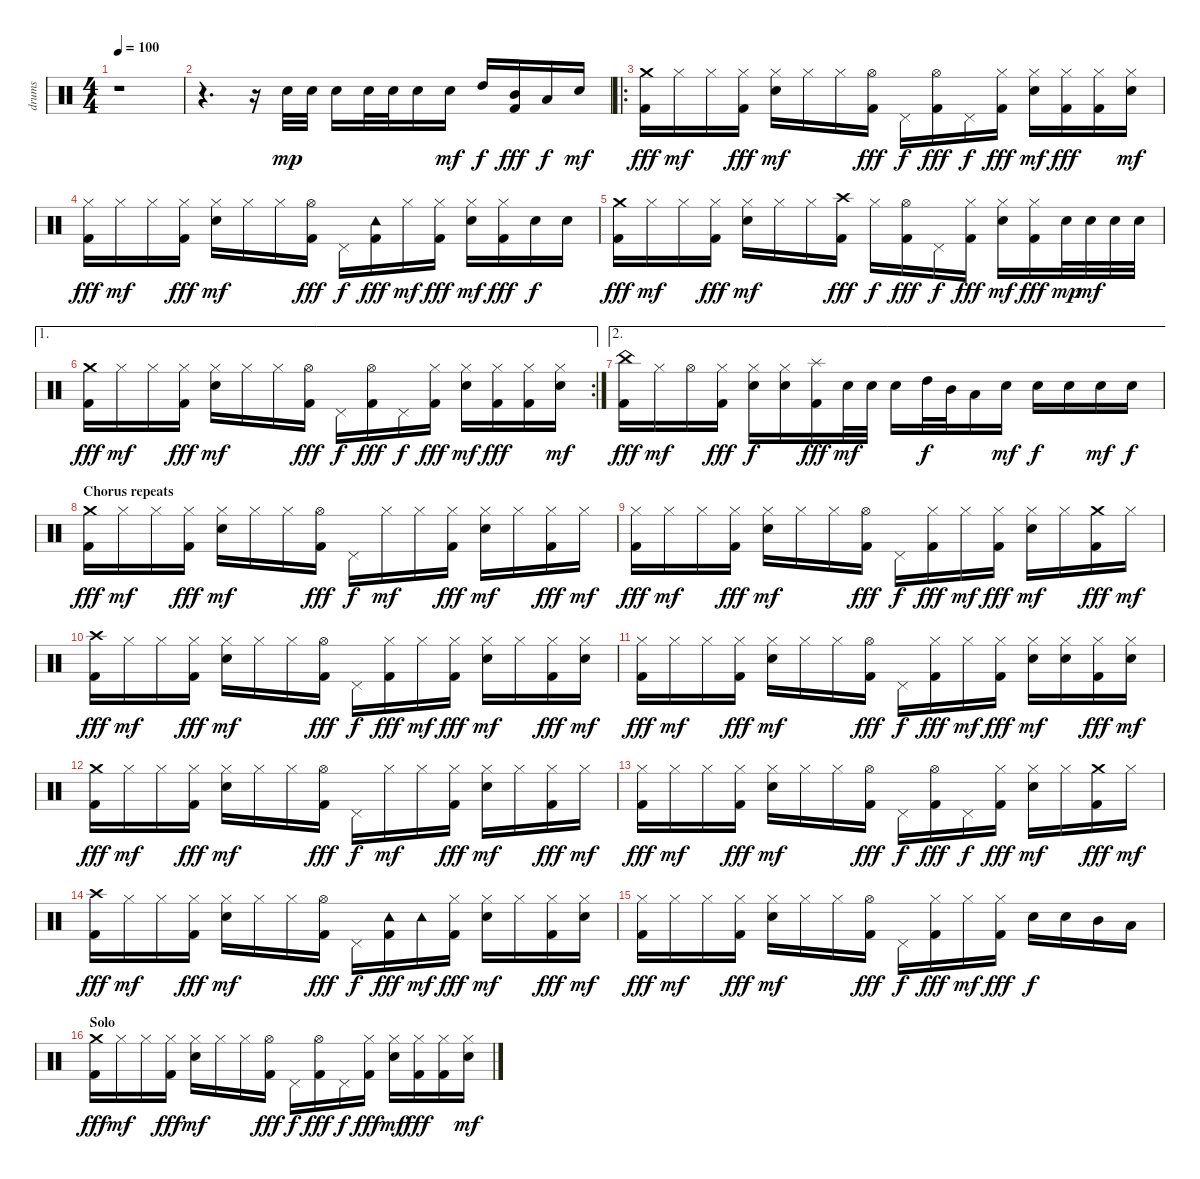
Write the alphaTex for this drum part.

\track ("drums" "drums") {instrument percussion}
\staff {score}
\articulation defaults
\ts (4 4)
\tempo 100
\clef neutral
\ks c
r.1{dy fff} |
r.4{d} r.16 "Electric Snare (hit)".32{dy mp} "Electric Snare (hit)".32 "Electric Snare (hit)".16 "Electric Snare (hit)".32 "Electric Snare (hit)".32 "Electric Snare (hit)".16 "Electric Snare (hit)".16{dy mf} "High Tom (hit)".16{dy f} ("Mid Tom (hit)" "Kick (hit) 2").16{dy fff} "Low Tom (hit)".16{dy f} "Electric Snare (hit)".16{dy mf} |
\ro
("Crash medium (hit)" "Kick (hit) 2").16{dy fff} "Hi-Hat (closed)".16{dy mf} "Hi-Hat (closed)".16 ("Hi-Hat (closed)" "Kick (hit) 2").16{dy fff} ("Hi-Hat (closed)" "Electric Snare (hit)").16{dy mf} "Hi-Hat (closed)".16 "Hi-Hat (closed)".16 ("Hi-Hat (open)" "Kick (hit) 2").16{dy fff} "Pedal Hi-Hat (hit)".16{dy f} ("Hi-Hat (open)" "Kick (hit) 2").16{dy fff} "Pedal Hi-Hat (hit)".16{dy f} ("Hi-Hat (closed)" "Kick (hit) 2").16{dy fff} ("Hi-Hat (closed)" "Electric Snare (hit)").16{dy mf} ("Hi-Hat (closed)" "Kick (hit) 2").16{dy fff} ("Hi-Hat (closed)" "Kick (hit) 2").16 ("Hi-Hat (closed)" "Electric Snare (hit)").16{dy mf} |
("Hi-Hat (closed)" "Kick (hit) 2").16{dy fff} "Hi-Hat (closed)".16{dy mf} "Hi-Hat (closed)".16 ("Hi-Hat (closed)" "Kick (hit) 2").16{dy fff} ("Hi-Hat (closed)" "Electric Snare (hit)").16{dy mf} "Hi-Hat (closed)".16 "Hi-Hat (closed)".16 ("Hi-Hat (open)" "Kick (hit) 2").16{dy fff} "Pedal Hi-Hat (hit)".16{dy f} ("Tambourine (hit)" "Kick (hit) 2").16{dy fff} "Hi-Hat (closed)".16{dy mf} ("Hi-Hat (closed)" "Kick (hit) 2").16{dy fff} ("Hi-Hat (closed)" "Electric Snare (hit)").16{dy mf} ("Hi-Hat (closed)" "Kick (hit) 2").16{dy fff} "Electric Snare (hit)".16{dy f} "Electric Snare (hit)".16 |
("Crash medium (hit)" "Kick (hit) 2").16{dy fff} "Hi-Hat (closed)".16{dy mf} "Hi-Hat (closed)".16 ("Hi-Hat (closed)" "Kick (hit) 2").16{dy fff} ("Hi-Hat (closed)" "Electric Snare (hit)").16{dy mf} "Hi-Hat (closed)".16 "Hi-Hat (closed)".16 ("Crash high (hit)" "Kick (hit) 2").16{dy fff} "Hi-Hat (closed)".16{dy f} ("Hi-Hat (open)" "Kick (hit) 2").16{dy fff} "Pedal Hi-Hat (hit)".16{dy f} ("Hi-Hat (closed)" "Kick (hit) 2").16{dy fff} ("Hi-Hat (closed)" "Electric Snare (hit)").16{dy mf} ("Hi-Hat (closed)" "Kick (hit) 2").16{dy fff} "Electric Snare (hit)".32{dy mp} "Electric Snare (hit)".32{dy mf} "Electric Snare (hit)".32 "Electric Snare (hit)".32 |
\ae 1
\rc 2
("Crash medium (hit)" "Kick (hit) 2").16{dy fff} "Hi-Hat (closed)".16{dy mf} "Hi-Hat (closed)".16 ("Hi-Hat (closed)" "Kick (hit) 2").16{dy fff} ("Hi-Hat (closed)" "Electric Snare (hit)").16{dy mf} "Hi-Hat (closed)".16 "Hi-Hat (closed)".16 ("Hi-Hat (open)" "Kick (hit) 2").16{dy fff} "Pedal Hi-Hat (hit)".16{dy f} ("Hi-Hat (open)" "Kick (hit) 2").16{dy fff} "Pedal Hi-Hat (hit)".16{dy f} ("Hi-Hat (closed)" "Kick (hit) 2").16{dy fff} ("Hi-Hat (closed)" "Electric Snare (hit)").16{dy mf} ("Hi-Hat (closed)" "Kick (hit) 2").16{dy fff} ("Hi-Hat (closed)" "Kick (hit) 2").16 ("Hi-Hat (closed)" "Electric Snare (hit)").16{dy mf} |
\ae 2
("China (hit)" "Kick (hit) 2").16{dy fff} "Hi-Hat (closed)".16{dy mf} "Hi-Hat (open)".16 ("Hi-Hat (closed)" "Kick (hit) 2").16{dy fff} ("Hi-Hat (closed)" "Electric Snare (hit)").16{dy f} ("Hi-Hat (closed)" "Electric Snare (hit)").16 ("Splash (hit)" "Kick (hit) 2").16{dy fff} "Electric Snare (hit)".32{dy mf} "Electric Snare (hit)".32 "Electric Snare (hit)".16 "High Tom (hit)".32{dy f} "Mid Tom (hit)".32 "Low Tom (hit)".16 "Electric Snare (hit)".16{dy mf} "Electric Snare (hit)".16{dy f} "Electric Snare (hit)".16 "Electric Snare (hit)".16{dy mf} "Electric Snare (hit)".16{dy f} |
\section ("" "Chorus repeats")
("Crash medium (hit)" "Kick (hit) 2").16{dy fff} "Hi-Hat (closed)".16{dy mf} "Hi-Hat (closed)".16 ("Hi-Hat (closed)" "Kick (hit) 2").16{dy fff} ("Hi-Hat (closed)" "Electric Snare (hit)").16{dy mf} "Hi-Hat (closed)".16 "Hi-Hat (closed)".16 ("Hi-Hat (open)" "Kick (hit) 2").16{dy fff} "Pedal Hi-Hat (hit)".16{dy f} "Hi-Hat (closed)".16{dy mf} "Hi-Hat (closed)".16 ("Hi-Hat (closed)" "Kick (hit) 2").16{dy fff} ("Hi-Hat (closed)" "Electric Snare (hit)").16{dy mf} "Hi-Hat (closed)".16 ("Hi-Hat (closed)" "Kick (hit) 2").16{dy fff} "Hi-Hat (closed)".16{dy mf} |
("Hi-Hat (closed)" "Kick (hit) 2").16{dy fff} "Hi-Hat (closed)".16{dy mf} "Hi-Hat (closed)".16 ("Hi-Hat (closed)" "Kick (hit) 2").16{dy fff} ("Hi-Hat (closed)" "Electric Snare (hit)").16{dy mf} "Hi-Hat (closed)".16 "Hi-Hat (closed)".16 ("Hi-Hat (open)" "Kick (hit) 2").16{dy fff} "Pedal Hi-Hat (hit)".16{dy f} ("Hi-Hat (closed)" "Kick (hit) 2").16{dy fff} "Hi-Hat (closed)".16{dy mf} ("Hi-Hat (closed)" "Kick (hit) 2").16{dy fff} ("Hi-Hat (closed)" "Electric Snare (hit)").16{dy mf} "Hi-Hat (closed)".16 ("Crash medium (hit)" "Kick (hit) 2").16{dy fff} "Hi-Hat (closed)".16{dy mf} |
("Crash high (hit)" "Kick (hit) 2").16{dy fff} "Hi-Hat (closed)".16{dy mf} "Hi-Hat (closed)".16 ("Hi-Hat (closed)" "Kick (hit) 2").16{dy fff} ("Hi-Hat (closed)" "Electric Snare (hit)").16{dy mf} "Hi-Hat (closed)".16 "Hi-Hat (closed)".16 ("Hi-Hat (open)" "Kick (hit) 2").16{dy fff} "Pedal Hi-Hat (hit)".16{dy f} ("Hi-Hat (closed)" "Kick (hit) 2").16{dy fff} "Hi-Hat (closed)".16{dy mf} ("Hi-Hat (closed)" "Kick (hit) 2").16{dy fff} ("Hi-Hat (closed)" "Electric Snare (hit)").16{dy mf} "Hi-Hat (closed)".16 ("Hi-Hat (closed)" "Kick (hit) 2").16{dy fff} ("Hi-Hat (closed)" "Electric Snare (hit)").16{dy mf} |
("Hi-Hat (closed)" "Kick (hit) 2").16{dy fff} "Hi-Hat (closed)".16{dy mf} "Hi-Hat (closed)".16 ("Hi-Hat (closed)" "Kick (hit) 2").16{dy fff} ("Hi-Hat (closed)" "Electric Snare (hit)").16{dy mf} "Hi-Hat (closed)".16 "Hi-Hat (closed)".16 ("Hi-Hat (open)" "Kick (hit) 2").16{dy fff} "Pedal Hi-Hat (hit)".16{dy f} ("Hi-Hat (closed)" "Kick (hit) 2").16{dy fff} "Hi-Hat (closed)".16{dy mf} ("Hi-Hat (closed)" "Kick (hit) 2").16{dy fff} ("Hi-Hat (closed)" "Electric Snare (hit)").16{dy mf} ("Hi-Hat (closed)" "Electric Snare (hit)").16 ("Hi-Hat (closed)" "Kick (hit) 2").16{dy fff} ("Hi-Hat (closed)" "Electric Snare (hit)").16{dy mf} |
("Crash medium (hit)" "Kick (hit) 2").16{dy fff} "Hi-Hat (closed)".16{dy mf} "Hi-Hat (closed)".16 ("Hi-Hat (closed)" "Kick (hit) 2").16{dy fff} ("Hi-Hat (closed)" "Electric Snare (hit)").16{dy mf} "Hi-Hat (closed)".16 "Hi-Hat (closed)".16 ("Hi-Hat (open)" "Kick (hit) 2").16{dy fff} "Pedal Hi-Hat (hit)".16{dy f} "Hi-Hat (closed)".16{dy mf} "Hi-Hat (closed)".16 ("Hi-Hat (closed)" "Kick (hit) 2").16{dy fff} ("Hi-Hat (closed)" "Electric Snare (hit)").16{dy mf} "Hi-Hat (closed)".16 ("Hi-Hat (closed)" "Kick (hit) 2").16{dy fff} "Hi-Hat (closed)".16{dy mf} |
("Hi-Hat (closed)" "Kick (hit) 2").16{dy fff} "Hi-Hat (closed)".16{dy mf} "Hi-Hat (closed)".16 ("Hi-Hat (closed)" "Kick (hit) 2").16{dy fff} ("Hi-Hat (closed)" "Electric Snare (hit)").16{dy mf} "Hi-Hat (closed)".16 "Hi-Hat (closed)".16 ("Hi-Hat (open)" "Kick (hit) 2").16{dy fff} "Pedal Hi-Hat (hit)".16{dy f} ("Hi-Hat (open)" "Kick (hit) 2").16{dy fff} "Pedal Hi-Hat (hit)".16{dy f} ("Hi-Hat (closed)" "Kick (hit) 2").16{dy fff} ("Hi-Hat (closed)" "Electric Snare (hit)").16{dy mf} "Hi-Hat (closed)".16 ("Crash medium (hit)" "Kick (hit) 2").16{dy fff} "Hi-Hat (closed)".16{dy mf} |
("Crash high (hit)" "Kick (hit) 2").16{dy fff} "Hi-Hat (closed)".16{dy mf} "Hi-Hat (closed)".16 ("Hi-Hat (closed)" "Kick (hit) 2").16{dy fff} ("Hi-Hat (closed)" "Electric Snare (hit)").16{dy mf} "Hi-Hat (closed)".16 "Hi-Hat (closed)".16 ("Hi-Hat (open)" "Kick (hit) 2").16{dy fff} "Pedal Hi-Hat (hit)".16{dy f} ("Tambourine (hit)" "Kick (hit) 2").16{dy fff} "Tambourine (hit)".16{dy mf} ("Hi-Hat (closed)" "Kick (hit) 2").16{dy fff} ("Hi-Hat (closed)" "Electric Snare (hit)").16{dy mf} "Hi-Hat (closed)".16 ("Hi-Hat (closed)" "Kick (hit) 2").16{dy fff} ("Hi-Hat (closed)" "Electric Snare (hit)").16{dy mf} |
("Hi-Hat (closed)" "Kick (hit) 2").16{dy fff} "Hi-Hat (closed)".16{dy mf} "Hi-Hat (closed)".16 ("Hi-Hat (closed)" "Kick (hit) 2").16{dy fff} ("Hi-Hat (closed)" "Electric Snare (hit)").16{dy mf} "Hi-Hat (closed)".16 "Hi-Hat (closed)".16 ("Hi-Hat (open)" "Kick (hit) 2").16{dy fff} "Pedal Hi-Hat (hit)".16{dy f} ("Hi-Hat (closed)" "Kick (hit) 2").16{dy fff} "Hi-Hat (closed)".16{dy mf} ("Hi-Hat (closed)" "Kick (hit) 2").16{dy fff} "Electric Snare (hit)".16{dy f} "Electric Snare (hit)".16 "Mid Tom (hit)".16 "Low Tom (hit)".16 |
\section ("" "Solo")
("Crash medium (hit)" "Kick (hit) 2").16{dy fff} "Hi-Hat (closed)".16{dy mf} "Hi-Hat (closed)".16 ("Hi-Hat (closed)" "Kick (hit) 2").16{dy fff} ("Hi-Hat (closed)" "Electric Snare (hit)").16{dy mf} "Hi-Hat (closed)".16 "Hi-Hat (closed)".16 ("Hi-Hat (open)" "Kick (hit) 2").16{dy fff} "Pedal Hi-Hat (hit)".16{dy f} ("Hi-Hat (open)" "Kick (hit) 2").16{dy fff} "Pedal Hi-Hat (hit)".16{dy f} ("Hi-Hat (closed)" "Kick (hit) 2").16{dy fff} ("Hi-Hat (closed)" "Electric Snare (hit)").16{dy mf} ("Hi-Hat (closed)" "Kick (hit) 2").16{dy fff} ("Hi-Hat (closed)" "Kick (hit) 2").16 ("Hi-Hat (closed)" "Electric Snare (hit)").16{dy mf}
